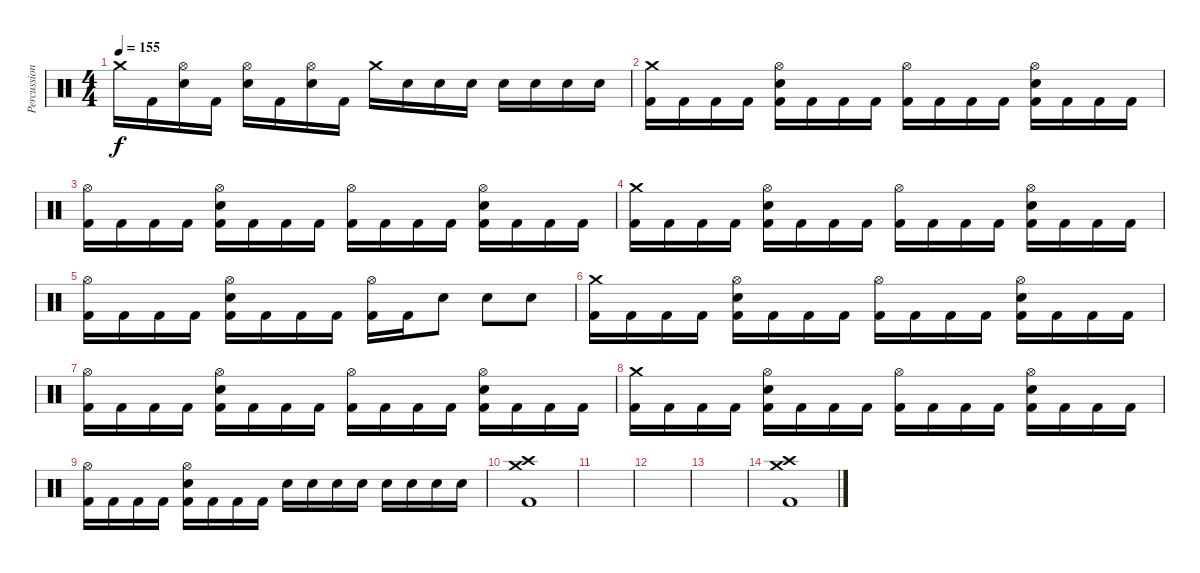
\track ("Percussion" "Percussion") {instrument percussion}
\staff {score}
\articulation defaults
\ts (4 4)
\tempo 155
\clef neutral
\ks c "Crash medium (hit)".16{dy f} "Kick (hit) 2".16
("Snare (hit) 2" "Hi-Hat (open)").16 "Kick (hit) 2".16 ("Snare (hit) 2" "Hi-Hat (open)").16 "Kick (hit) 2".16 ("Snare (hit) 2" "Hi-Hat (open)").16 "Kick (hit) 2".16 "Crash medium (hit)".16 "Snare (hit) 2".16 "Snare (hit) 2".16 "Snare (hit) 2".16 "Snare (hit) 2".16 "Snare (hit) 2".16 "Snare (hit) 2".16 "Snare (hit) 2".16 |
("Kick (hit) 2" "Crash medium (hit)").16 "Kick (hit) 2".16 "Kick (hit) 2".16 "Kick (hit) 2".16 ("Kick (hit) 2" "Snare (hit) 2" "Hi-Hat (open)").16 "Kick (hit) 2".16 "Kick (hit) 2".16 "Kick (hit) 2".16 ("Kick (hit) 2" "Hi-Hat (open)").16 "Kick (hit) 2".16 "Kick (hit) 2".16 "Kick (hit) 2".16 ("Kick (hit) 2" "Snare (hit) 2" "Hi-Hat (open)").16 "Kick (hit) 2".16 "Kick (hit) 2".16 "Kick (hit) 2".16 |
("Kick (hit) 2" "Hi-Hat (open)").16 "Kick (hit) 2".16 "Kick (hit) 2".16 "Kick (hit) 2".16 ("Kick (hit) 2" "Snare (hit) 2" "Hi-Hat (open)").16 "Kick (hit) 2".16 "Kick (hit) 2".16 "Kick (hit) 2".16 ("Kick (hit) 2" "Hi-Hat (open)").16 "Kick (hit) 2".16 "Kick (hit) 2".16 "Kick (hit) 2".16 ("Kick (hit) 2" "Snare (hit) 2" "Hi-Hat (open)").16 "Kick (hit) 2".16 "Kick (hit) 2".16 "Kick (hit) 2".16 |
("Kick (hit) 2" "Crash medium (hit)").16 "Kick (hit) 2".16 "Kick (hit) 2".16 "Kick (hit) 2".16 ("Kick (hit) 2" "Snare (hit) 2" "Hi-Hat (open)").16 "Kick (hit) 2".16 "Kick (hit) 2".16 "Kick (hit) 2".16 ("Kick (hit) 2" "Hi-Hat (open)").16 "Kick (hit) 2".16 "Kick (hit) 2".16 "Kick (hit) 2".16 ("Kick (hit) 2" "Snare (hit) 2" "Hi-Hat (open)").16 "Kick (hit) 2".16 "Kick (hit) 2".16 "Kick (hit) 2".16 |
("Kick (hit) 2" "Hi-Hat (open)").16 "Kick (hit) 2".16 "Kick (hit) 2".16 "Kick (hit) 2".16 ("Kick (hit) 2" "Snare (hit) 2" "Hi-Hat (open)").16 "Kick (hit) 2".16 "Kick (hit) 2".16 "Kick (hit) 2".16 ("Kick (hit) 2" "Hi-Hat (open)").16 "Kick (hit) 2".16 "Snare (hit) 2".8 "Snare (hit) 2".8 "Snare (hit) 2".8 |
("Kick (hit) 2" "Crash medium (hit)").16 "Kick (hit) 2".16 "Kick (hit) 2".16 "Kick (hit) 2".16 ("Kick (hit) 2" "Snare (hit) 2" "Hi-Hat (open)").16 "Kick (hit) 2".16 "Kick (hit) 2".16 "Kick (hit) 2".16 ("Kick (hit) 2" "Hi-Hat (open)").16 "Kick (hit) 2".16 "Kick (hit) 2".16 "Kick (hit) 2".16 ("Kick (hit) 2" "Snare (hit) 2" "Hi-Hat (open)").16 "Kick (hit) 2".16 "Kick (hit) 2".16 "Kick (hit) 2".16 |
("Kick (hit) 2" "Hi-Hat (open)").16 "Kick (hit) 2".16 "Kick (hit) 2".16 "Kick (hit) 2".16 ("Kick (hit) 2" "Snare (hit) 2" "Hi-Hat (open)").16 "Kick (hit) 2".16 "Kick (hit) 2".16 "Kick (hit) 2".16 ("Kick (hit) 2" "Hi-Hat (open)").16 "Kick (hit) 2".16 "Kick (hit) 2".16 "Kick (hit) 2".16 ("Kick (hit) 2" "Snare (hit) 2" "Hi-Hat (open)").16 "Kick (hit) 2".16 "Kick (hit) 2".16 "Kick (hit) 2".16 |
("Kick (hit) 2" "Crash medium (hit)").16 "Kick (hit) 2".16 "Kick (hit) 2".16 "Kick (hit) 2".16 ("Kick (hit) 2" "Snare (hit) 2" "Hi-Hat (open)").16 "Kick (hit) 2".16 "Kick (hit) 2".16 "Kick (hit) 2".16 ("Kick (hit) 2" "Hi-Hat (open)").16 "Kick (hit) 2".16 "Kick (hit) 2".16 "Kick (hit) 2".16 ("Kick (hit) 2" "Snare (hit) 2" "Hi-Hat (open)").16 "Kick (hit) 2".16 "Kick (hit) 2".16 "Kick (hit) 2".16 |
("Kick (hit) 2" "Hi-Hat (open)").16 "Kick (hit) 2".16 "Kick (hit) 2".16 "Kick (hit) 2".16 ("Kick (hit) 2" "Snare (hit) 2" "Hi-Hat (open)").16 "Kick (hit) 2".16 "Kick (hit) 2".16 "Kick (hit) 2".16 "Snare (hit) 2".16 "Snare (hit) 2".16 "Snare (hit) 2".16 "Snare (hit) 2".16 "Snare (hit) 2".16 "Snare (hit) 2".16 "Snare (hit) 2".16 "Snare (hit) 2".16 |
("Crash high (hit)" "Kick (hit) 2" "Crash medium (hit)").1 |
|
|
|
("Crash high (hit)" "Kick (hit) 2" "Crash medium (hit)").1
